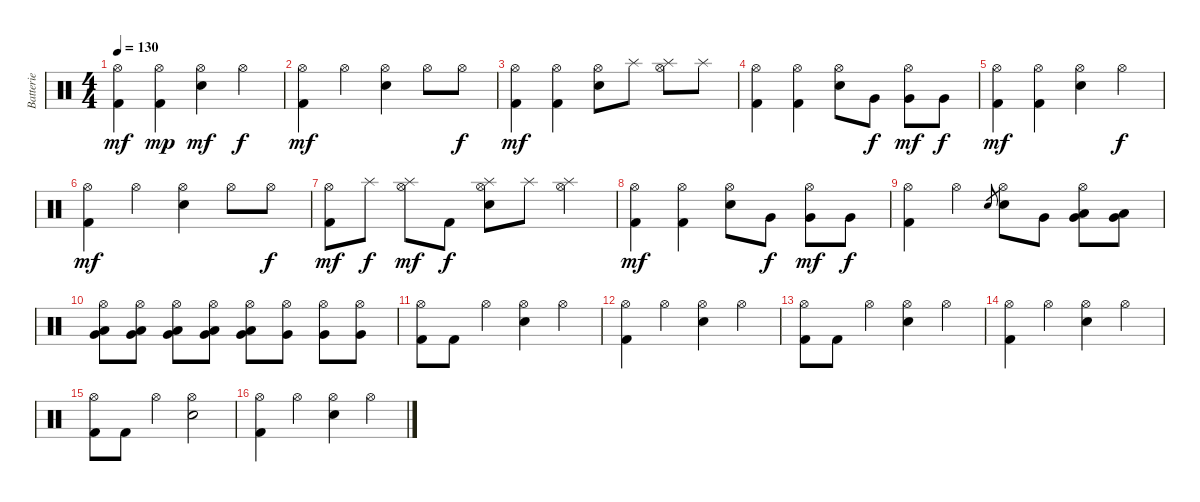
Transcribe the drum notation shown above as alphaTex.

\track ("Batterie" "Batterie") {instrument percussion}
\staff {score}
\articulation defaults
\ts (4 4)
\tempo 130
\clef neutral
\ks c
("Hi-Hat (open)" "Kick (hit) 2").4{dy mf} ("Hi-Hat (open)" "Kick (hit) 2").4{dy mp} ("Hi-Hat (open)" "Electric Snare (hit)").4{dy mf} "Hi-Hat (open)".4{dy f} |
("Hi-Hat (open)" "Kick (hit) 2").4{dy mf} "Hi-Hat (open)".4 ("Hi-Hat (open)" "Electric Snare (hit)").4 "Hi-Hat (open)".8 "Hi-Hat (open)".8{dy f} |
("Hi-Hat (open)" "Kick (hit) 2").4{dy mf} ("Hi-Hat (open)" "Kick (hit) 2").4 ("Hi-Hat (open)" "Electric Snare (hit)").8 "Splash (hit)".8 ("Hi-Hat (open)" "Splash (hit)").8 "Splash (hit)".8 |
("Hi-Hat (open)" "Kick (hit) 2").4 ("Hi-Hat (open)" "Kick (hit) 2").4 ("Hi-Hat (open)" "Electric Snare (hit)").8 "Very Low Tom (hit)".8{dy f} ("Hi-Hat (open)" "Very Low Tom (hit)").8{dy mf} "Very Low Tom (hit)".8{dy f} |
("Hi-Hat (open)" "Kick (hit) 2").4{dy mf} ("Hi-Hat (open)" "Kick (hit) 2").4 ("Hi-Hat (open)" "Electric Snare (hit)").4 "Hi-Hat (open)".4{dy f} |
("Hi-Hat (open)" "Kick (hit) 2").4{dy mf} "Hi-Hat (open)".4 ("Hi-Hat (open)" "Electric Snare (hit)").4 "Hi-Hat (open)".8 "Hi-Hat (open)".8{dy f} |
("Hi-Hat (open)" "Kick (hit) 2").8{dy mf} "Splash (hit)".8{dy f} ("Hi-Hat (open)" "Splash (hit)").8{dy mf} "Kick (hit) 2".8{dy f} ("Hi-Hat (open)" "Splash (hit)" "Electric Snare (hit)").8 "Splash (hit)".8 ("Hi-Hat (open)" "Splash (hit)").4 |
("Hi-Hat (open)" "Kick (hit) 2").4{dy mf} ("Hi-Hat (open)" "Kick (hit) 2").4 ("Hi-Hat (open)" "Electric Snare (hit)").8 "Very Low Tom (hit)".8{dy f} ("Hi-Hat (open)" "Very Low Tom (hit)").8{dy mf} "Very Low Tom (hit)".8{dy f} |
("Hi-Hat (open)" "Kick (hit) 2").4 "Hi-Hat (open)".4 "Electric Snare (hit)".8{gr} ("Hi-Hat (open)" "Electric Snare (hit)").8 "Very Low Tom (hit)".8 ("Hi-Hat (open)" "Very Low Tom (hit)" "Low Tom (hit)").8 ("Very Low Tom (hit)" "Low Tom (hit)").8 |
("Hi-Hat (open)" "Low Tom (hit)" "Very Low Tom (hit)").8 ("Hi-Hat (open)" "Low Tom (hit)" "Very Low Tom (hit)").8 ("Hi-Hat (open)" "Low Tom (hit)" "Very Low Tom (hit)").8 ("Hi-Hat (open)" "Low Tom (hit)" "Very Low Tom (hit)").8 ("Hi-Hat (open)" "Low Tom (hit)" "Very Low Tom (hit)").8 ("Hi-Hat (open)" "Very Low Tom (hit)").8 ("Hi-Hat (open)" "Very Low Tom (hit)").8 ("Hi-Hat (open)" "Very Low Tom (hit)").8 |
("Hi-Hat (open)" "Kick (hit) 2").8 "Kick (hit) 2".8 "Hi-Hat (open)".4 ("Hi-Hat (open)" "Electric Snare (hit)").4 "Hi-Hat (open)".4 |
("Hi-Hat (open)" "Kick (hit) 2").4 "Hi-Hat (open)".4 ("Hi-Hat (open)" "Electric Snare (hit)").4 "Hi-Hat (open)".4 |
("Hi-Hat (open)" "Kick (hit) 2").8 "Kick (hit) 2".8 "Hi-Hat (open)".4 ("Hi-Hat (open)" "Electric Snare (hit)").4 "Hi-Hat (open)".4 |
("Hi-Hat (open)" "Kick (hit) 2").4 "Hi-Hat (open)".4 ("Hi-Hat (open)" "Electric Snare (hit)").4 "Hi-Hat (open)".4 |
("Hi-Hat (open)" "Kick (hit) 2").8 "Kick (hit) 2".8 "Hi-Hat (open)".4 ("Hi-Hat (open)" "Electric Snare (hit)").2 |
("Hi-Hat (open)" "Kick (hit) 2").4 "Hi-Hat (open)".4 ("Hi-Hat (open)" "Electric Snare (hit)").4 "Hi-Hat (open)".4
